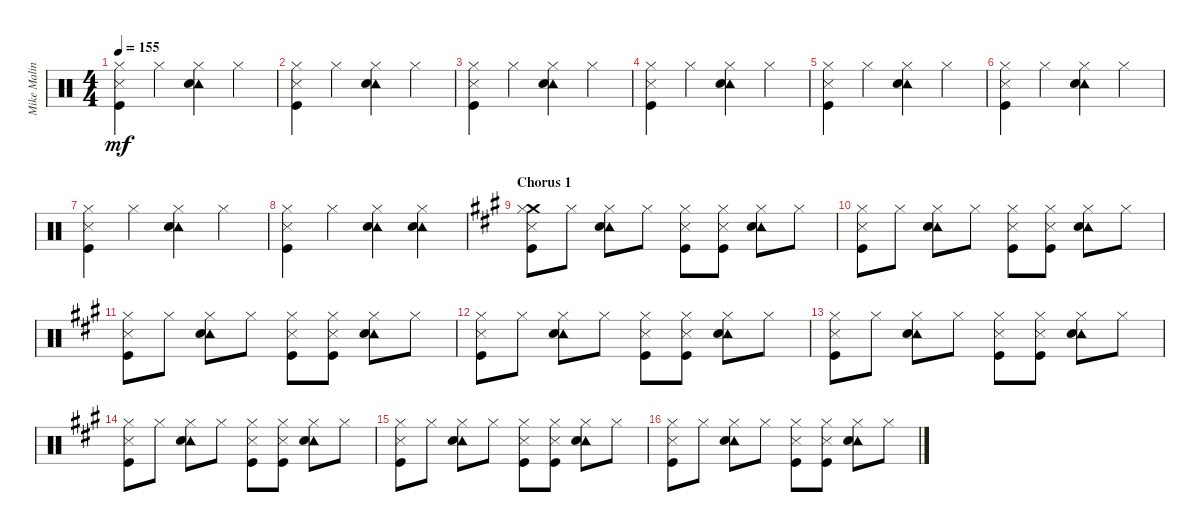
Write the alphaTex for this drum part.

\track ("Mike Malinin - Drums" "Mike Malin") {instrument percussion}
\staff {score}
\articulation defaults
\ts (4 4)
\tempo 155
\clef neutral
\ks c
("Hi-Hat (closed)" "Metronome (hit)" "Kick (hit)").4{dy mf} "Hi-Hat (closed)".4 ("Tambourine (hit)" "Hi-Hat (closed)" "Electric Snare (hit)").4 "Hi-Hat (closed)".4 |
("Hi-Hat (closed)" "Metronome (hit)" "Kick (hit)").4 "Hi-Hat (closed)".4 ("Tambourine (hit)" "Hi-Hat (closed)" "Electric Snare (hit)").4 "Hi-Hat (closed)".4 |
("Hi-Hat (closed)" "Metronome (hit)" "Kick (hit)").4 "Hi-Hat (closed)".4 ("Tambourine (hit)" "Hi-Hat (closed)" "Electric Snare (hit)").4 "Hi-Hat (closed)".4 |
("Hi-Hat (closed)" "Metronome (hit)" "Kick (hit)").4 "Hi-Hat (closed)".4 ("Tambourine (hit)" "Hi-Hat (closed)" "Electric Snare (hit)").4 "Hi-Hat (closed)".4 |
("Hi-Hat (closed)" "Metronome (hit)" "Kick (hit)").4 "Hi-Hat (closed)".4 ("Tambourine (hit)" "Hi-Hat (closed)" "Electric Snare (hit)").4 "Hi-Hat (closed)".4 |
("Hi-Hat (closed)" "Metronome (hit)" "Kick (hit)").4 "Hi-Hat (closed)".4 ("Tambourine (hit)" "Hi-Hat (closed)" "Electric Snare (hit)").4 "Hi-Hat (closed)".4 |
("Hi-Hat (closed)" "Metronome (hit)" "Kick (hit)").4 "Hi-Hat (closed)".4 ("Tambourine (hit)" "Hi-Hat (closed)" "Electric Snare (hit)").4 "Hi-Hat (closed)".4 |
("Hi-Hat (closed)" "Metronome (hit)" "Kick (hit)").4 "Hi-Hat (closed)".4 ("Tambourine (hit)" "Hi-Hat (closed)" "Electric Snare (hit)").4 ("Tambourine (hit)" "Hi-Hat (closed)" "Electric Snare (hit)").4 |
\section ("" "Chorus 1")
\ks a
("Crash medium (hit)" "Hi-Hat (closed)" "Metronome (hit)" "Kick (hit)").8 "Hi-Hat (closed)".8 ("Tambourine (hit)" "Hi-Hat (closed)" "Electric Snare (hit)").8 "Hi-Hat (closed)".8 ("Hi-Hat (closed)" "Metronome (hit)" "Kick (hit)").8 ("Hi-Hat (closed)" "Metronome (hit)" "Kick (hit)").8 ("Tambourine (hit)" "Hi-Hat (closed)" "Electric Snare (hit)").8 "Hi-Hat (closed)".8 |
("Hi-Hat (closed)" "Metronome (hit)" "Kick (hit)").8 "Hi-Hat (closed)".8 ("Tambourine (hit)" "Hi-Hat (closed)" "Electric Snare (hit)").8 "Hi-Hat (closed)".8 ("Hi-Hat (closed)" "Metronome (hit)" "Kick (hit)").8 ("Hi-Hat (closed)" "Metronome (hit)" "Kick (hit)").8 ("Tambourine (hit)" "Hi-Hat (closed)" "Electric Snare (hit)").8 "Hi-Hat (closed)".8 |
("Hi-Hat (closed)" "Metronome (hit)" "Kick (hit)").8 "Hi-Hat (closed)".8 ("Tambourine (hit)" "Hi-Hat (closed)" "Electric Snare (hit)").8 "Hi-Hat (closed)".8 ("Hi-Hat (closed)" "Metronome (hit)" "Kick (hit)").8 ("Hi-Hat (closed)" "Metronome (hit)" "Kick (hit)").8 ("Tambourine (hit)" "Hi-Hat (closed)" "Electric Snare (hit)").8 "Hi-Hat (closed)".8 |
("Hi-Hat (closed)" "Metronome (hit)" "Kick (hit)").8 "Hi-Hat (closed)".8 ("Tambourine (hit)" "Hi-Hat (closed)" "Electric Snare (hit)").8 "Hi-Hat (closed)".8 ("Hi-Hat (closed)" "Metronome (hit)" "Kick (hit)").8 ("Hi-Hat (closed)" "Metronome (hit)" "Kick (hit)").8 ("Tambourine (hit)" "Hi-Hat (closed)" "Electric Snare (hit)").8 "Hi-Hat (closed)".8 |
("Hi-Hat (closed)" "Metronome (hit)" "Kick (hit)").8 "Hi-Hat (closed)".8 ("Tambourine (hit)" "Hi-Hat (closed)" "Electric Snare (hit)").8 "Hi-Hat (closed)".8 ("Hi-Hat (closed)" "Metronome (hit)" "Kick (hit)").8 ("Hi-Hat (closed)" "Metronome (hit)" "Kick (hit)").8 ("Tambourine (hit)" "Hi-Hat (closed)" "Electric Snare (hit)").8 "Hi-Hat (closed)".8 |
("Hi-Hat (closed)" "Metronome (hit)" "Kick (hit)").8 "Hi-Hat (closed)".8 ("Tambourine (hit)" "Hi-Hat (closed)" "Electric Snare (hit)").8 "Hi-Hat (closed)".8 ("Hi-Hat (closed)" "Metronome (hit)" "Kick (hit)").8 ("Hi-Hat (closed)" "Metronome (hit)" "Kick (hit)").8 ("Tambourine (hit)" "Hi-Hat (closed)" "Electric Snare (hit)").8 "Hi-Hat (closed)".8 |
("Hi-Hat (closed)" "Metronome (hit)" "Kick (hit)").8 "Hi-Hat (closed)".8 ("Tambourine (hit)" "Hi-Hat (closed)" "Electric Snare (hit)").8 "Hi-Hat (closed)".8 ("Hi-Hat (closed)" "Metronome (hit)" "Kick (hit)").8 ("Hi-Hat (closed)" "Metronome (hit)" "Kick (hit)").8 ("Tambourine (hit)" "Hi-Hat (closed)" "Electric Snare (hit)").8 "Hi-Hat (closed)".8 |
("Hi-Hat (closed)" "Metronome (hit)" "Kick (hit)").8 "Hi-Hat (closed)".8 ("Tambourine (hit)" "Hi-Hat (closed)" "Electric Snare (hit)").8 "Hi-Hat (closed)".8 ("Hi-Hat (closed)" "Metronome (hit)" "Kick (hit)").8 ("Hi-Hat (closed)" "Metronome (hit)" "Kick (hit)").8 ("Tambourine (hit)" "Hi-Hat (closed)" "Electric Snare (hit)").8 "Hi-Hat (closed)".8
